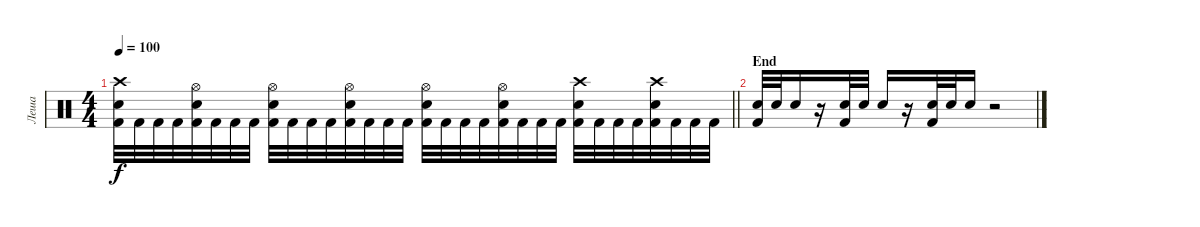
\track ("Леша" "Леша") {instrument percussion}
\staff {score}
\articulation defaults
\ts (4 4)
\tempo 100
\clef neutral
\barLineRight lightlight
\ks c
("Crash high (hit)" "Electric Snare (hit)" "Kick (hit) 2").32{dy f} "Kick (hit) 2".32 "Kick (hit) 2".32 "Kick (hit) 2".32 ("Hi-Hat (open)" "Electric Snare (hit)" "Kick (hit) 2").32 "Kick (hit) 2".32 "Kick (hit) 2".32 "Kick (hit) 2".32 ("Hi-Hat (open)" "Electric Snare (hit)" "Kick (hit) 2").32 "Kick (hit) 2".32 "Kick (hit) 2".32 "Kick (hit) 2".32 ("Hi-Hat (open)" "Electric Snare (hit)" "Kick (hit) 2").32 "Kick (hit) 2".32 "Kick (hit) 2".32 "Kick (hit) 2".32 ("Hi-Hat (open)" "Electric Snare (hit)" "Kick (hit) 2").32 "Kick (hit) 2".32 "Kick (hit) 2".32 "Kick (hit) 2".32 ("Hi-Hat (open)" "Electric Snare (hit)" "Kick (hit) 2").32 "Kick (hit) 2".32 "Kick (hit) 2".32 "Kick (hit) 2".32 ("Crash high (hit)" "Electric Snare (hit)" "Kick (hit) 2").32 "Kick (hit) 2".32 "Kick (hit) 2".32 "Kick (hit) 2".32 ("Crash high (hit)" "Electric Snare (hit)" "Kick (hit) 2").32 "Kick (hit) 2".32 "Kick (hit) 2".32 "Kick (hit) 2".32 |
\section ("" "End")
("Electric Snare (hit)" "Kick (hit) 2").32 "Electric Snare (hit)".32 "Electric Snare (hit)".16 r.16 ("Electric Snare (hit)" "Kick (hit) 2").32 "Electric Snare (hit)".32 "Electric Snare (hit)".16 r.16 ("Electric Snare (hit)" "Kick (hit) 2").32 "Electric Snare (hit)".32 "Electric Snare (hit)".16 r.2
